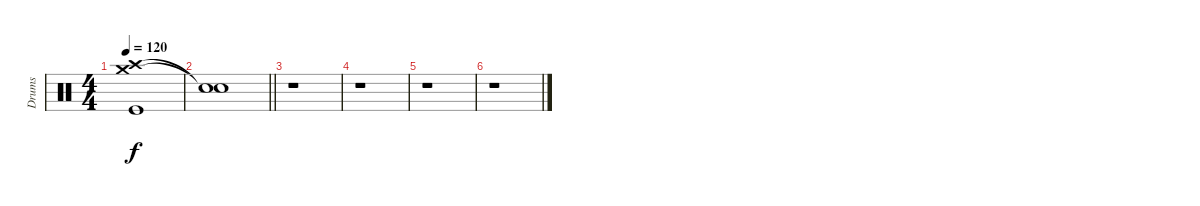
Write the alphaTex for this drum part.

\track ("Drums" "Drums") {instrument percussion}
\staff {score}
\articulation defaults
\ts (4 4)
\tempo 120
\clef neutral
\ks c
("Crash medium (hit)" "Crash high (hit)" "Kick (hit)").1{dy f} |
\barLineRight lightlight
("Snare (hit)"{t} "Snare (hit)"{t}).1 |
r.1 |
r.1 |
r.1 |
r.1
